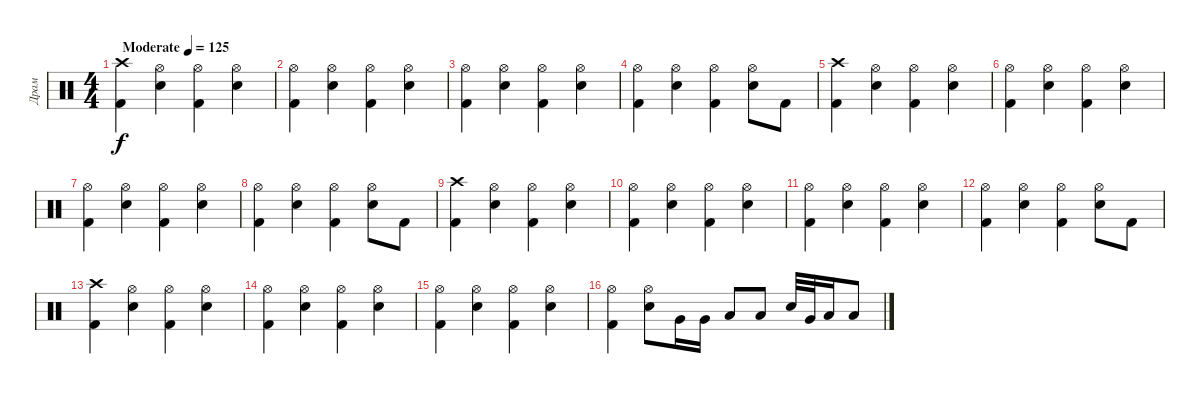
\track ("Драм" "Драм") {instrument percussion}
\staff {score}
\articulation defaults
\ts (4 4)
\tempo (125 "Moderate")
\clef neutral
\ks c
("Crash high (hit)" "Kick (hit) 2").4{dy f} ("Hi-Hat (open)" "Snare (hit) 2").4 ("Hi-Hat (open)" "Kick (hit) 2").4 ("Hi-Hat (open)" "Snare (hit) 2").4 |
("Hi-Hat (open)" "Kick (hit) 2").4 ("Hi-Hat (open)" "Snare (hit) 2").4 ("Hi-Hat (open)" "Kick (hit) 2").4 ("Hi-Hat (open)" "Snare (hit) 2").4 |
("Hi-Hat (open)" "Kick (hit) 2").4 ("Hi-Hat (open)" "Snare (hit) 2").4 ("Hi-Hat (open)" "Kick (hit) 2").4 ("Hi-Hat (open)" "Snare (hit) 2").4 |
("Hi-Hat (open)" "Kick (hit) 2").4 ("Hi-Hat (open)" "Snare (hit) 2").4 ("Hi-Hat (open)" "Kick (hit) 2").4 ("Hi-Hat (open)" "Snare (hit) 2").8 "Kick (hit) 2".8 |
("Crash high (hit)" "Kick (hit) 2").4 ("Hi-Hat (open)" "Snare (hit) 2").4 ("Hi-Hat (open)" "Kick (hit) 2").4 ("Hi-Hat (open)" "Snare (hit) 2").4 |
("Hi-Hat (open)" "Kick (hit) 2").4 ("Hi-Hat (open)" "Snare (hit) 2").4 ("Hi-Hat (open)" "Kick (hit) 2").4 ("Hi-Hat (open)" "Snare (hit) 2").4 |
("Hi-Hat (open)" "Kick (hit) 2").4 ("Hi-Hat (open)" "Snare (hit) 2").4 ("Hi-Hat (open)" "Kick (hit) 2").4 ("Hi-Hat (open)" "Snare (hit) 2").4 |
("Hi-Hat (open)" "Kick (hit) 2").4 ("Hi-Hat (open)" "Snare (hit) 2").4 ("Hi-Hat (open)" "Kick (hit) 2").4 ("Hi-Hat (open)" "Snare (hit) 2").8 "Kick (hit) 2".8 |
("Crash high (hit)" "Kick (hit) 2").4 ("Hi-Hat (open)" "Snare (hit) 2").4 ("Hi-Hat (open)" "Kick (hit) 2").4 ("Hi-Hat (open)" "Snare (hit) 2").4 |
("Hi-Hat (open)" "Kick (hit) 2").4 ("Hi-Hat (open)" "Snare (hit) 2").4 ("Hi-Hat (open)" "Kick (hit) 2").4 ("Hi-Hat (open)" "Snare (hit) 2").4 |
("Hi-Hat (open)" "Kick (hit) 2").4 ("Hi-Hat (open)" "Snare (hit) 2").4 ("Hi-Hat (open)" "Kick (hit) 2").4 ("Hi-Hat (open)" "Snare (hit) 2").4 |
("Hi-Hat (open)" "Kick (hit) 2").4 ("Hi-Hat (open)" "Snare (hit) 2").4 ("Hi-Hat (open)" "Kick (hit) 2").4 ("Hi-Hat (open)" "Snare (hit) 2").8 "Kick (hit) 2".8 |
("Crash high (hit)" "Kick (hit) 2").4 ("Hi-Hat (open)" "Snare (hit) 2").4 ("Hi-Hat (open)" "Kick (hit) 2").4 ("Hi-Hat (open)" "Snare (hit) 2").4 |
("Hi-Hat (open)" "Kick (hit) 2").4 ("Hi-Hat (open)" "Snare (hit) 2").4 ("Hi-Hat (open)" "Kick (hit) 2").4 ("Hi-Hat (open)" "Snare (hit) 2").4 |
("Hi-Hat (open)" "Kick (hit) 2").4 ("Hi-Hat (open)" "Snare (hit) 2").4 ("Hi-Hat (open)" "Kick (hit) 2").4 ("Hi-Hat (open)" "Snare (hit) 2").4 |
("Hi-Hat (open)" "Kick (hit) 2").4 ("Hi-Hat (open)" "Snare (hit) 2").8 "Very Low Tom (hit)".16 "Very Low Tom (hit)".16 "Low Floor Tom (hit)".8 "Low Floor Tom (hit)".8 "Snare (hit) 2".32 "Very Low Tom (hit)".32 "Low Floor Tom (hit)".16 "Low Floor Tom (hit)".8
